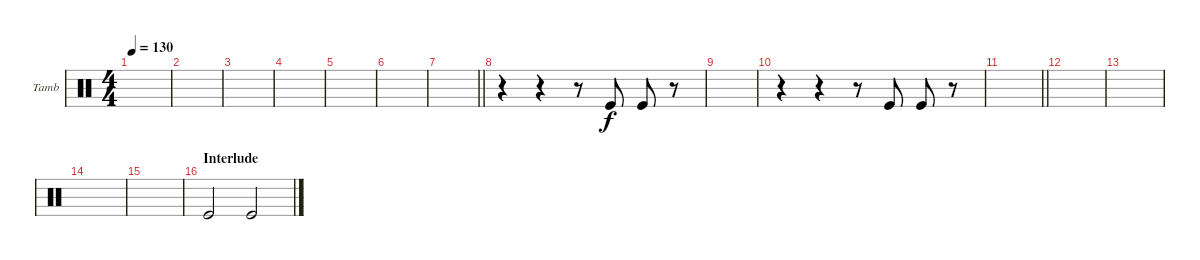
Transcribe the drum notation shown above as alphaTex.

\defaultSystemsLayout 4
\bracketExtendMode groupsimilarinstruments
\firstSystemTrackNameOrientation horizontal
\otherSystemsTrackNameOrientation horizontal
\track ("Tambourine" "Tamb") {instrument percussion}
\staff {score}
\articulation defaults
\ts (4 4)
\tempo 130
\clef neutral
\scale
0.333333
\ks aminor
|
\scale
0.333333 |
\scale
0.333333 |
\scale
0.333333 |
\scale
0.333333 |
\scale
0.333333 |
\scale
0.333333
\barLineRight lightlight
|
\scale
0.333333 r.4 r.4 r.8 "Kick (hit)".8 "Kick (hit)".8 r.8 |
\scale
0.333333 |
\scale
0.333333 r.4 r.4 r.8 "Kick (hit)".8 "Kick (hit)".8 r.8 |
\scale
0.333333
\barLineRight lightlight
|
\scale
0.333333 |
\scale
0.333333 |
\scale
0.333333 |
\scale
0.333333 |
\section ("" "Interlude")
\scale
0.333333 "Kick (hit)".2 "Kick (hit)".2
